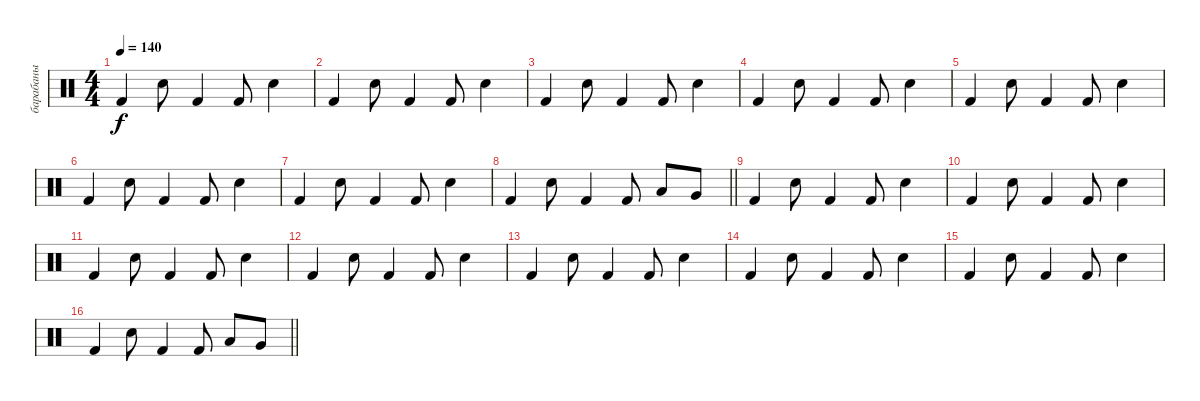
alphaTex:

\track ("барабаны" "барабаны") {instrument percussion}
\staff {score}
\articulation defaults
\ts (4 4)
\tempo 140
\clef neutral
\ks c "Kick (hit) 2".4{dy f} "Electric Snare (hit)".8 "Kick (hit) 2".4 "Kick (hit) 2".8 "Electric Snare (hit)".4
|
"Kick (hit) 2".4 "Electric Snare (hit)".8 "Kick (hit) 2".4 "Kick (hit) 2".8 "Electric Snare (hit)".4 |
"Kick (hit) 2".4 "Electric Snare (hit)".8 "Kick (hit) 2".4 "Kick (hit) 2".8 "Electric Snare (hit)".4 |
"Kick (hit) 2".4 "Electric Snare (hit)".8 "Kick (hit) 2".4 "Kick (hit) 2".8 "Electric Snare (hit)".4 |
"Kick (hit) 2".4 "Electric Snare (hit)".8 "Kick (hit) 2".4 "Kick (hit) 2".8 "Electric Snare (hit)".4 |
"Kick (hit) 2".4 "Electric Snare (hit)".8 "Kick (hit) 2".4 "Kick (hit) 2".8 "Electric Snare (hit)".4 |
"Kick (hit) 2".4 "Electric Snare (hit)".8 "Kick (hit) 2".4 "Kick (hit) 2".8 "Electric Snare (hit)".4 |
\barLineRight lightlight "Kick (hit) 2".4 "Electric Snare (hit)".8 "Kick (hit) 2".4 "Kick (hit) 2".8 "Low Tom (hit)".8 "Very Low Tom (hit)".8
|
"Kick (hit) 2".4 "Electric Snare (hit)".8 "Kick (hit) 2".4 "Kick (hit) 2".8 "Electric Snare (hit)".4 |
"Kick (hit) 2".4 "Electric Snare (hit)".8 "Kick (hit) 2".4 "Kick (hit) 2".8 "Electric Snare (hit)".4 |
"Kick (hit) 2".4 "Electric Snare (hit)".8 "Kick (hit) 2".4 "Kick (hit) 2".8 "Electric Snare (hit)".4 |
"Kick (hit) 2".4 "Electric Snare (hit)".8 "Kick (hit) 2".4 "Kick (hit) 2".8 "Electric Snare (hit)".4 |
"Kick (hit) 2".4 "Electric Snare (hit)".8 "Kick (hit) 2".4 "Kick (hit) 2".8 "Electric Snare (hit)".4 |
"Kick (hit) 2".4 "Electric Snare (hit)".8 "Kick (hit) 2".4 "Kick (hit) 2".8 "Electric Snare (hit)".4 |
"Kick (hit) 2".4 "Electric Snare (hit)".8 "Kick (hit) 2".4 "Kick (hit) 2".8 "Electric Snare (hit)".4 |
\barLineRight lightlight "Kick (hit) 2".4 "Electric Snare (hit)".8 "Kick (hit) 2".4 "Kick (hit) 2".8 "Low Tom (hit)".8 "Very Low Tom (hit)".8
